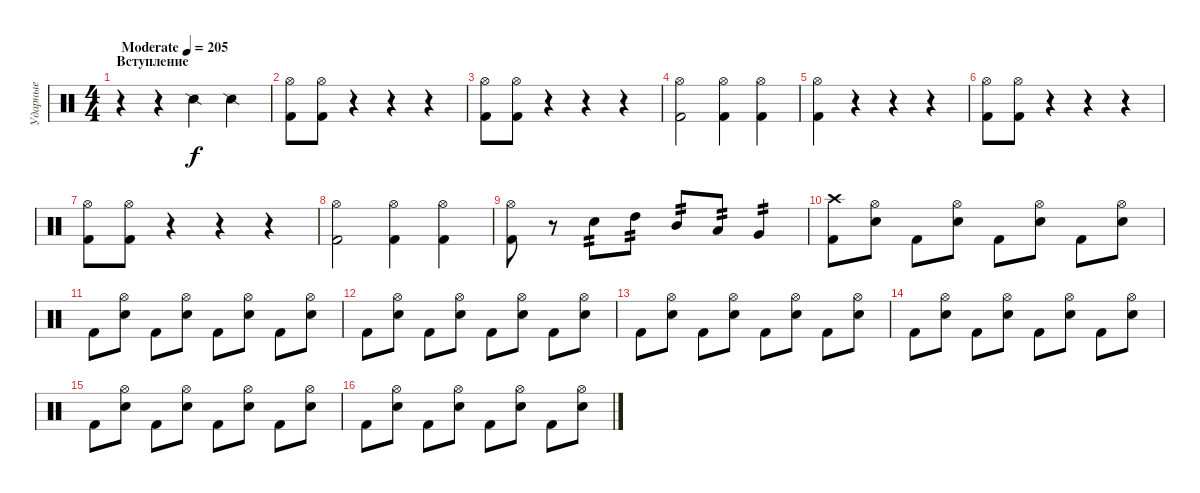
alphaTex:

\track ("Ударные" "Ударные") {instrument percussion}
\staff {score}
\articulation defaults
\ts (4 4)
\section ("" "Вступление")
\tempo (205 "Moderate")
\clef neutral
\ks c
r.4{dy f} r.4 "Snare (side stick) 2".4 "Snare (side stick) 2".4 |
("Hi-Hat (open)" "Kick (hit) 2").8 ("Hi-Hat (open)" "Kick (hit) 2").8 r.4 r.4 r.4 |
("Hi-Hat (open)" "Kick (hit) 2").8 ("Hi-Hat (open)" "Kick (hit) 2").8 r.4 r.4 r.4 |
("Hi-Hat (open)" "Kick (hit) 2").2 ("Hi-Hat (open)" "Kick (hit) 2").4 ("Hi-Hat (open)" "Kick (hit) 2").4 |
("Hi-Hat (open)" "Kick (hit) 2").4 r.4 r.4 r.4 |
("Hi-Hat (open)" "Kick (hit) 2").8 ("Hi-Hat (open)" "Kick (hit) 2").8 r.4 r.4 r.4 |
("Hi-Hat (open)" "Kick (hit) 2").8 ("Hi-Hat (open)" "Kick (hit) 2").8 r.4 r.4 r.4 |
("Hi-Hat (open)" "Kick (hit) 2").2 ("Hi-Hat (open)" "Kick (hit) 2").4 ("Hi-Hat (open)" "Kick (hit) 2").4 |
("Hi-Hat (open)" "Kick (hit) 2").8 r.8 "Electric Snare (hit)".8{tp 2} "High Tom (hit)".8{tp 2} "Mid Tom (hit)".8{tp 2} "Low Tom (hit)".8{tp 2} "Very Low Tom (hit)".4{tp 2} |
("Crash high (hit)" "Kick (hit) 2").8 ("Hi-Hat (open)" "Electric Snare (hit)").8 "Kick (hit) 2".8 ("Hi-Hat (open)" "Electric Snare (hit)").8 "Kick (hit) 2".8 ("Hi-Hat (open)" "Electric Snare (hit)").8 "Kick (hit) 2".8 ("Hi-Hat (open)" "Electric Snare (hit)").8 |
"Kick (hit) 2".8 ("Hi-Hat (open)" "Electric Snare (hit)").8 "Kick (hit) 2".8 ("Hi-Hat (open)" "Electric Snare (hit)").8 "Kick (hit) 2".8 ("Hi-Hat (open)" "Electric Snare (hit)").8 "Kick (hit) 2".8 ("Hi-Hat (open)" "Electric Snare (hit)").8 |
"Kick (hit) 2".8 ("Hi-Hat (open)" "Electric Snare (hit)").8 "Kick (hit) 2".8 ("Hi-Hat (open)" "Electric Snare (hit)").8 "Kick (hit) 2".8 ("Hi-Hat (open)" "Electric Snare (hit)").8 "Kick (hit) 2".8 ("Hi-Hat (open)" "Electric Snare (hit)").8 |
"Kick (hit) 2".8 ("Hi-Hat (open)" "Electric Snare (hit)").8 "Kick (hit) 2".8 ("Hi-Hat (open)" "Electric Snare (hit)").8 "Kick (hit) 2".8 ("Hi-Hat (open)" "Electric Snare (hit)").8 "Kick (hit) 2".8 ("Hi-Hat (open)" "Electric Snare (hit)").8 |
"Kick (hit) 2".8 ("Hi-Hat (open)" "Electric Snare (hit)").8 "Kick (hit) 2".8 ("Hi-Hat (open)" "Electric Snare (hit)").8 "Kick (hit) 2".8 ("Hi-Hat (open)" "Electric Snare (hit)").8 "Kick (hit) 2".8 ("Hi-Hat (open)" "Electric Snare (hit)").8 |
"Kick (hit) 2".8 ("Hi-Hat (open)" "Electric Snare (hit)").8 "Kick (hit) 2".8 ("Hi-Hat (open)" "Electric Snare (hit)").8 "Kick (hit) 2".8 ("Hi-Hat (open)" "Electric Snare (hit)").8 "Kick (hit) 2".8 ("Hi-Hat (open)" "Electric Snare (hit)").8 |
"Kick (hit) 2".8 ("Hi-Hat (open)" "Electric Snare (hit)").8 "Kick (hit) 2".8 ("Hi-Hat (open)" "Electric Snare (hit)").8 "Kick (hit) 2".8 ("Hi-Hat (open)" "Electric Snare (hit)").8 "Kick (hit) 2".8 ("Hi-Hat (open)" "Electric Snare (hit)").8
